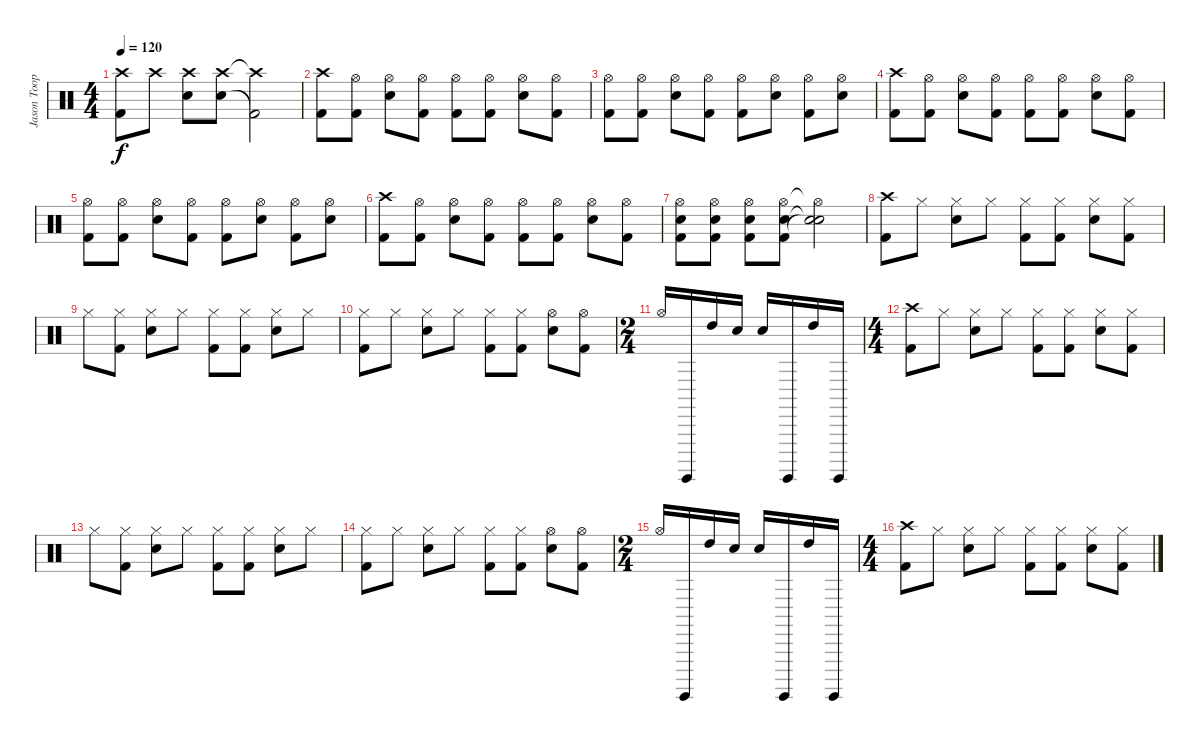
\track ("Jason Toop Cooper" "Jason Toop") {instrument percussion}
\staff {score}
\articulation defaults
\ts (4 4)
\tempo 120
\clef neutral
\ks c
("Crash high (hit)" "Kick (hit) 2").8{dy f} "Crash high (hit)".8 ("Crash high (hit)" "Electric Snare (hit)").8 ("Crash high (hit)" "Electric Snare (hit)").8 ("Crash high (hit)"{t} "Kick (hit) 2"{t}).2 |
("Crash high (hit)" "Kick (hit) 2").8 ("Hi-Hat (open)"{x} "Kick (hit) 2").8 ("Hi-Hat (open)" "Electric Snare (hit)").8 ("Hi-Hat (open)"{x} "Kick (hit) 2").8 ("Hi-Hat (open)" "Kick (hit) 2").8 ("Hi-Hat (open)"{x} "Kick (hit) 2").8 ("Hi-Hat (open)" "Electric Snare (hit)").8 ("Hi-Hat (open)"{x} "Kick (hit) 2").8 |
("Hi-Hat (open)" "Kick (hit) 2").8 ("Hi-Hat (open)"{x} "Kick (hit) 2").8 ("Hi-Hat (open)" "Electric Snare (hit)").8 ("Hi-Hat (open)"{x} "Kick (hit) 2").8 ("Hi-Hat (open)" "Kick (hit) 2").8 ("Hi-Hat (open)" "Electric Snare (hit)").8 ("Hi-Hat (open)"{x} "Kick (hit) 2").8 ("Hi-Hat (open)" "Electric Snare (hit)").8 |
("Crash high (hit)" "Kick (hit) 2").8 ("Hi-Hat (open)"{x} "Kick (hit) 2").8 ("Hi-Hat (open)" "Electric Snare (hit)").8 ("Hi-Hat (open)"{x} "Kick (hit) 2").8 ("Hi-Hat (open)" "Kick (hit) 2").8 ("Hi-Hat (open)"{x} "Kick (hit) 2").8 ("Hi-Hat (open)" "Electric Snare (hit)").8 ("Hi-Hat (open)"{x} "Kick (hit) 2").8 |
("Hi-Hat (open)" "Kick (hit) 2").8 ("Hi-Hat (open)"{x} "Kick (hit) 2").8 ("Hi-Hat (open)" "Electric Snare (hit)").8 ("Hi-Hat (open)"{x} "Kick (hit) 2").8 ("Hi-Hat (open)" "Kick (hit) 2").8 ("Hi-Hat (open)" "Electric Snare (hit)").8 ("Hi-Hat (open)"{x} "Kick (hit) 2").8 ("Hi-Hat (open)" "Electric Snare (hit)").8 |
("Crash high (hit)" "Kick (hit) 2").8 ("Hi-Hat (open)"{x} "Kick (hit) 2").8 ("Hi-Hat (open)" "Electric Snare (hit)").8 ("Hi-Hat (open)"{x} "Kick (hit) 2").8 ("Hi-Hat (open)" "Kick (hit) 2").8 ("Hi-Hat (open)"{x} "Kick (hit) 2").8 ("Hi-Hat (open)" "Electric Snare (hit)").8 ("Hi-Hat (open)"{x} "Kick (hit) 2").8 |
("Hi-Hat (open)" "Kick (hit) 2" "Electric Snare (hit)").8 ("Hi-Hat (open)" "Kick (hit) 2" "Electric Snare (hit)").8 ("Hi-Hat (open)" "Kick (hit) 2" "Electric Snare (hit)").8 ("Hi-Hat (open)" "Kick (hit) 2" "Electric Snare (hit)").8 ("Hi-Hat (open)"{t} "Electric Snare (hit)"{t} "Snare (hit)"{t}).2 |
("Crash high (hit)" "Kick (hit) 2").8 "Hi-Hat (closed)".8 ("Hi-Hat (closed)" "Electric Snare (hit)").8 "Hi-Hat (closed)".8 ("Hi-Hat (closed)" "Kick (hit) 2").8 ("Hi-Hat (closed)" "Kick (hit) 2").8 ("Hi-Hat (closed)" "Electric Snare (hit)").8 ("Hi-Hat (closed)" "Kick (hit) 2").8 |
"Hi-Hat (closed)".8 ("Hi-Hat (closed)" "Kick (hit) 2").8 ("Hi-Hat (closed)" "Electric Snare (hit)").8 "Hi-Hat (closed)".8 ("Hi-Hat (closed)" "Kick (hit) 2").8 ("Hi-Hat (closed)" "Kick (hit) 2").8 ("Hi-Hat (closed)" "Electric Snare (hit)").8 "Hi-Hat (closed)".8 |
("Hi-Hat (closed)" "Kick (hit) 2").8 "Hi-Hat (closed)".8 ("Hi-Hat (closed)" "Electric Snare (hit)").8 "Hi-Hat (closed)".8 ("Hi-Hat (closed)" "Kick (hit) 2").8 ("Hi-Hat (closed)" "Kick (hit) 2").8 ("Hi-Hat (open)" "Electric Snare (hit)").8 ("Hi-Hat (open)" "Kick (hit) 2").8 |
\ts (2 4)
"Hi-Hat (open)".16 "Surdo (hit)".16 "High Tom (hit)".16 "Electric Snare (hit)".16 "Electric Snare (hit)".16 "Surdo (hit)".16 "High Tom (hit)".16 "Surdo (hit)".16 |
\ts (4 4)
("Crash high (hit)" "Kick (hit) 2").8 "Hi-Hat (closed)".8 ("Hi-Hat (closed)" "Electric Snare (hit)").8 "Hi-Hat (closed)".8 ("Hi-Hat (closed)" "Kick (hit) 2").8 ("Hi-Hat (closed)" "Kick (hit) 2").8 ("Hi-Hat (closed)" "Electric Snare (hit)").8 ("Hi-Hat (closed)" "Kick (hit) 2").8 |
"Hi-Hat (closed)".8 ("Hi-Hat (closed)" "Kick (hit) 2").8 ("Hi-Hat (closed)" "Electric Snare (hit)").8 "Hi-Hat (closed)".8 ("Hi-Hat (closed)" "Kick (hit) 2").8 ("Hi-Hat (closed)" "Kick (hit) 2").8 ("Hi-Hat (closed)" "Electric Snare (hit)").8 "Hi-Hat (closed)".8 |
("Hi-Hat (closed)" "Kick (hit) 2").8 "Hi-Hat (closed)".8 ("Hi-Hat (closed)" "Electric Snare (hit)").8 "Hi-Hat (closed)".8 ("Hi-Hat (closed)" "Kick (hit) 2").8 ("Hi-Hat (closed)" "Kick (hit) 2").8 ("Hi-Hat (open)" "Electric Snare (hit)").8 ("Hi-Hat (open)" "Kick (hit) 2").8 |
\ts (2 4)
"Hi-Hat (open)".16 "Surdo (hit)".16 "High Tom (hit)".16 "Electric Snare (hit)".16 "Electric Snare (hit)".16 "Surdo (hit)".16 "High Tom (hit)".16 "Surdo (hit)".16 |
\ts (4 4)
("Crash high (hit)" "Kick (hit) 2").8 "Hi-Hat (closed)".8 ("Hi-Hat (closed)" "Electric Snare (hit)").8 "Hi-Hat (closed)".8 ("Hi-Hat (closed)" "Kick (hit) 2").8 ("Hi-Hat (closed)" "Kick (hit) 2").8 ("Hi-Hat (closed)" "Electric Snare (hit)").8 ("Hi-Hat (closed)" "Kick (hit) 2").8
